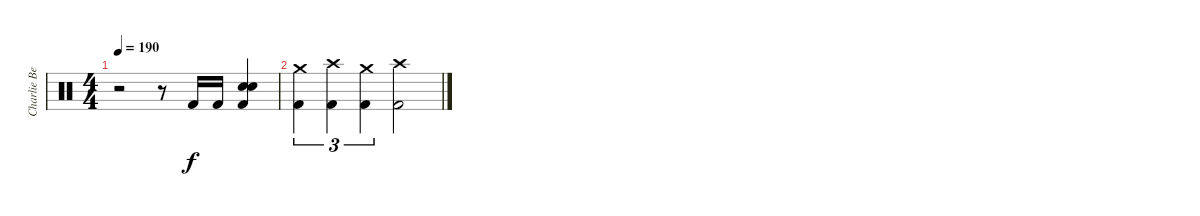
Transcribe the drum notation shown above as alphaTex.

\track ("Charlie Benante" "Charlie Be") {instrument percussion}
\staff {score}
\articulation defaults
\ts (4 4)
\tempo 190
\clef neutral
\ks c
r.2{dy f} r.8 "Kick (hit) 2".16 "Kick (hit) 2".16 ("Electric Snare (hit)" "Snare (hit) 2" "Kick (hit) 2").4 |
("Crash medium (hit)" "Kick (hit) 2").4{tu (3 2)} ("Crash high (hit)" "Kick (hit) 2").4{tu (3 2)} ("Crash medium (hit)" "Kick (hit) 2").4{tu (3 2)} ("Crash high (hit)" "Kick (hit) 2").2
